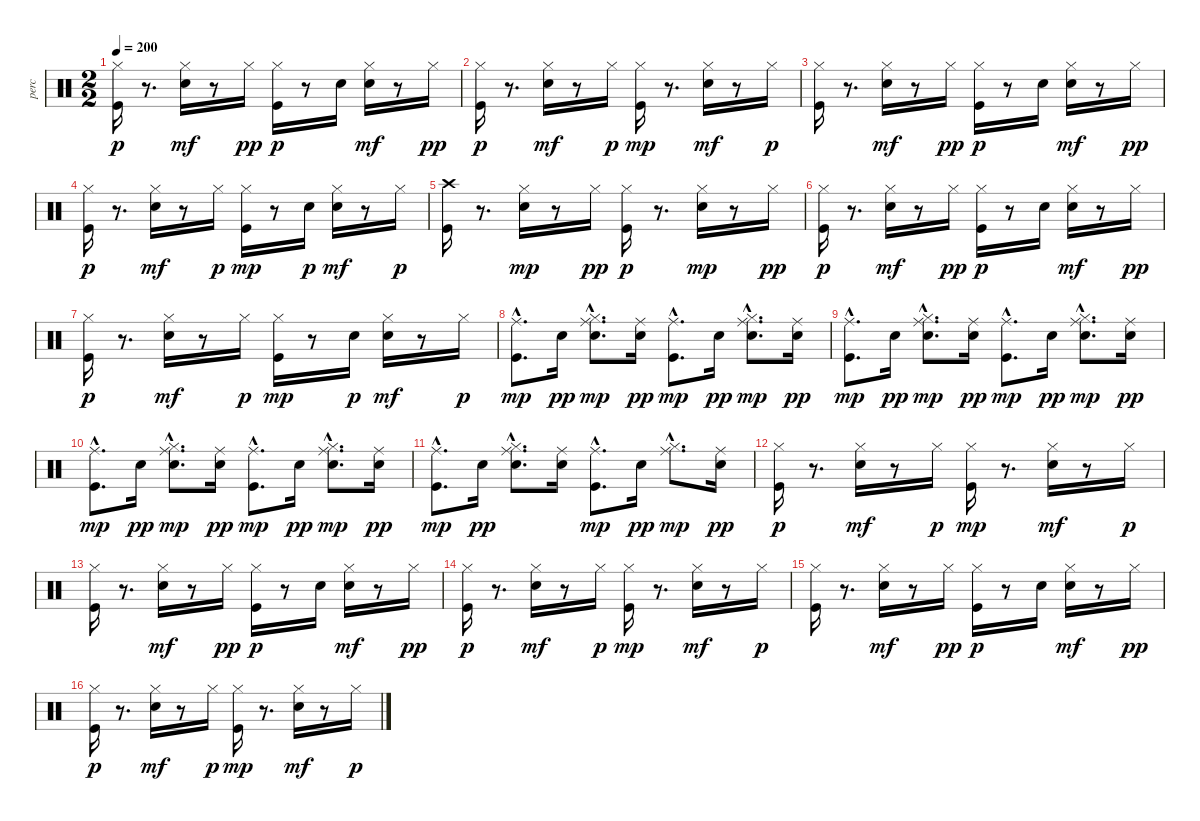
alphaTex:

\track ("perc" "perc") {instrument percussion}
\staff {score}
\articulation defaults
\ts (2 2)
\tempo 200
\clef neutral
\ks c
("Kick (hit)" "Hi-Hat (closed)").16{dy p} r.8{d} ("Snare (hit) 2" "Hi-Hat (closed)").16{dy mf} r.8 "Hi-Hat (closed)".16{dy pp} ("Kick (hit)" "Hi-Hat (closed)").16{dy p} r.8 "Snare (hit) 2".16 ("Snare (hit) 2" "Hi-Hat (closed)").16{dy mf} r.8 "Hi-Hat (closed)".16{dy pp} |
("Kick (hit)" "Hi-Hat (closed)").16{dy p} r.8{d} ("Snare (hit) 2" "Hi-Hat (closed)").16{dy mf} r.8 "Hi-Hat (closed)".16{dy p} ("Kick (hit)" "Hi-Hat (closed)").16{dy mp} r.8{d} ("Snare (hit) 2" "Hi-Hat (closed)").16{dy mf} r.8 "Hi-Hat (closed)".16{dy p} |
("Kick (hit)" "Hi-Hat (closed)").16 r.8{d} ("Snare (hit) 2" "Hi-Hat (closed)").16{dy mf} r.8 "Hi-Hat (closed)".16{dy pp} ("Kick (hit)" "Hi-Hat (closed)").16{dy p} r.8 "Snare (hit) 2".16 ("Snare (hit) 2" "Hi-Hat (closed)").16{dy mf} r.8 "Hi-Hat (closed)".16{dy pp} |
("Kick (hit)" "Hi-Hat (closed)").16{dy p} r.8{d} ("Snare (hit) 2" "Hi-Hat (closed)").16{dy mf} r.8 "Hi-Hat (closed)".16{dy p} ("Kick (hit)" "Hi-Hat (closed)").16{dy mp} r.8 "Snare (hit) 2".16{dy p} ("Snare (hit) 2" "Hi-Hat (closed)").16{dy mf} r.8 "Hi-Hat (closed)".16{dy p} |
("Kick (hit)" "Crash high (hit)").16 r.8{d} ("Snare (hit) 2" "Hi-Hat (closed)").16{dy mp} r.8 "Hi-Hat (closed)".16{dy pp} ("Kick (hit)" "Hi-Hat (closed)").16{dy p} r.8{d} ("Snare (hit) 2" "Hi-Hat (closed)").16{dy mp} r.8 "Hi-Hat (closed)".16{dy pp} |
("Kick (hit)" "Hi-Hat (closed)").16{dy p} r.8{d} ("Snare (hit) 2" "Hi-Hat (closed)").16{dy mf} r.8 "Hi-Hat (closed)".16{dy pp} ("Kick (hit)" "Hi-Hat (closed)").16{dy p} r.8 "Snare (hit) 2".16 ("Snare (hit) 2" "Hi-Hat (closed)").16{dy mf} r.8 "Hi-Hat (closed)".16{dy pp} |
("Kick (hit)" "Hi-Hat (closed)").16{dy p} r.8{d} ("Snare (hit) 2" "Hi-Hat (closed)").16{dy mf} r.8 "Hi-Hat (closed)".16{dy p} ("Kick (hit)" "Hi-Hat (closed)").16{dy mp} r.8 "Snare (hit) 2".16{dy p} ("Snare (hit) 2" "Hi-Hat (closed)").16{dy mf} r.8 "Hi-Hat (closed)".16{dy p} |
("Kick (hit)"{hac} "Ride (middle)"{hac}).8{d dy mp} "Snare (hit) 2".16{dy pp} ("Snare (hit) 2"{hac} "Hi-Hat (closed)"{hac} "Ride (middle)"{hac}).8{d dy mp} ("Snare (hit) 2" "Ride (middle)").16{dy pp} ("Kick (hit)"{hac} "Ride (middle)"{hac}).8{d dy mp} "Snare (hit) 2".16{dy pp} ("Snare (hit) 2"{hac} "Hi-Hat (closed)"{hac} "Ride (middle)"{hac}).8{d dy mp} ("Snare (hit) 2" "Ride (middle)").16{dy pp} |
("Kick (hit)"{hac} "Ride (middle)"{hac}).8{d dy mp} "Snare (hit) 2".16{dy pp} ("Snare (hit) 2"{hac} "Hi-Hat (closed)"{hac} "Ride (middle)"{hac}).8{d dy mp} ("Snare (hit) 2" "Ride (middle)").16{dy pp} ("Kick (hit)"{hac} "Ride (middle)"{hac}).8{d dy mp} "Snare (hit) 2".16{dy pp} ("Snare (hit) 2"{hac} "Hi-Hat (closed)"{hac} "Ride (middle)"{hac}).8{d dy mp} ("Snare (hit) 2" "Ride (middle)").16{dy pp} |
("Kick (hit)"{hac} "Ride (middle)"{hac}).8{d dy mp} "Snare (hit) 2".16{dy pp} ("Snare (hit) 2"{hac} "Hi-Hat (closed)"{hac} "Ride (middle)"{hac}).8{d dy mp} ("Snare (hit) 2" "Ride (middle)").16{dy pp} ("Kick (hit)"{hac} "Ride (middle)"{hac}).8{d dy mp} "Snare (hit) 2".16{dy pp} ("Snare (hit) 2"{hac} "Hi-Hat (closed)"{hac} "Ride (middle)"{hac}).8{d dy mp} ("Snare (hit) 2" "Ride (middle)").16{dy pp} |
("Kick (hit)"{hac} "Ride (middle)"{hac}).8{d dy mp} "Snare (hit) 2".16{dy pp} ("Snare (hit) 2"{hac} "Hi-Hat (closed)"{hac} "Ride (middle)"{hac}).8{d} ("Snare (hit) 2" "Ride (middle)").16 ("Kick (hit)"{hac} "Ride (middle)"{hac}).8{d dy mp} "Snare (hit) 2".16{dy pp} ("Hi-Hat (closed)"{hac} "Ride (middle)"{hac}).8{d dy mp} ("Snare (hit) 2" "Ride (middle)").16{dy pp} |
("Kick (hit)" "Hi-Hat (closed)").16{dy p} r.8{d} ("Snare (hit) 2" "Hi-Hat (closed)").16{dy mf} r.8 "Hi-Hat (closed)".16{dy p} ("Kick (hit)" "Hi-Hat (closed)").16{dy mp} r.8{d} ("Snare (hit) 2" "Hi-Hat (closed)").16{dy mf} r.8 "Hi-Hat (closed)".16{dy p} |
("Kick (hit)" "Hi-Hat (closed)").16 r.8{d} ("Snare (hit) 2" "Hi-Hat (closed)").16{dy mf} r.8 "Hi-Hat (closed)".16{dy pp} ("Kick (hit)" "Hi-Hat (closed)").16{dy p} r.8 "Snare (hit) 2".16 ("Snare (hit) 2" "Hi-Hat (closed)").16{dy mf} r.8 "Hi-Hat (closed)".16{dy pp} |
("Kick (hit)" "Hi-Hat (closed)").16{dy p} r.8{d} ("Snare (hit) 2" "Hi-Hat (closed)").16{dy mf} r.8 "Hi-Hat (closed)".16{dy p} ("Kick (hit)" "Hi-Hat (closed)").16{dy mp} r.8{d} ("Snare (hit) 2" "Hi-Hat (closed)").16{dy mf} r.8 "Hi-Hat (closed)".16{dy p} |
("Kick (hit)" "Hi-Hat (closed)").16 r.8{d} ("Snare (hit) 2" "Hi-Hat (closed)").16{dy mf} r.8 "Hi-Hat (closed)".16{dy pp} ("Kick (hit)" "Hi-Hat (closed)").16{dy p} r.8 "Snare (hit) 2".16 ("Snare (hit) 2" "Hi-Hat (closed)").16{dy mf} r.8 "Hi-Hat (closed)".16{dy pp} |
("Kick (hit)" "Hi-Hat (closed)").16{dy p} r.8{d} ("Snare (hit) 2" "Hi-Hat (closed)").16{dy mf} r.8 "Hi-Hat (closed)".16{dy p} ("Kick (hit)" "Hi-Hat (closed)").16{dy mp} r.8{d} ("Snare (hit) 2" "Hi-Hat (closed)").16{dy mf} r.8 "Hi-Hat (closed)".16{dy p}
